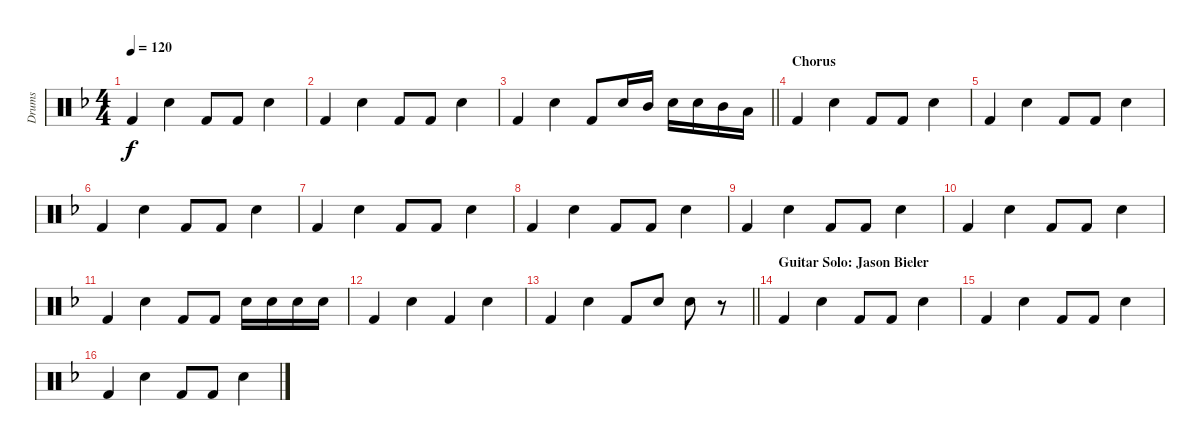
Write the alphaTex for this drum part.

\track ("Drums" "Drums") {instrument percussion}
\staff {score}
\articulation defaults
\ts (4 4)
\tempo 120
\clef neutral
\ks f "Kick (hit) 2".4{dy f} "Snare (hit) 2".4 "Kick (hit) 2".8 "Kick (hit) 2".8 "Snare (hit) 2".4
|
"Kick (hit) 2".4 "Snare (hit) 2".4 "Kick (hit) 2".8 "Kick (hit) 2".8 "Snare (hit) 2".4 |
\barLineRight lightlight "Kick (hit) 2".4 "Snare (hit) 2".4 "Kick (hit) 2".8 "Snare (hit) 2".16 "Mid Tom (hit)".16 "Snare (hit) 2".16 "Snare (hit) 2".16 "Mid Tom (hit)".16 "Low Tom (hit)".16
|
\section ("" "Chorus")
"Kick (hit) 2".4 "Snare (hit) 2".4 "Kick (hit) 2".8 "Kick (hit) 2".8 "Snare (hit) 2".4 |
"Kick (hit) 2".4 "Snare (hit) 2".4 "Kick (hit) 2".8 "Kick (hit) 2".8 "Snare (hit) 2".4 |
"Kick (hit) 2".4 "Snare (hit) 2".4 "Kick (hit) 2".8 "Kick (hit) 2".8 "Snare (hit) 2".4 |
"Kick (hit) 2".4 "Snare (hit) 2".4 "Kick (hit) 2".8 "Kick (hit) 2".8 "Snare (hit) 2".4 |
"Kick (hit) 2".4 "Snare (hit) 2".4 "Kick (hit) 2".8 "Kick (hit) 2".8 "Snare (hit) 2".4 |
"Kick (hit) 2".4 "Snare (hit) 2".4 "Kick (hit) 2".8 "Kick (hit) 2".8 "Snare (hit) 2".4 |
"Kick (hit) 2".4 "Snare (hit) 2".4 "Kick (hit) 2".8 "Kick (hit) 2".8 "Snare (hit) 2".4 |
"Kick (hit) 2".4 "Snare (hit) 2".4 "Kick (hit) 2".8 "Kick (hit) 2".8 "Snare (hit) 2".16 "Snare (hit) 2".16 "Snare (hit) 2".16 "Snare (hit) 2".16 |
"Kick (hit) 2".4 "Snare (hit) 2".4 "Kick (hit) 2".4 "Snare (hit) 2".4 |
\barLineRight lightlight "Kick (hit) 2".4 "Snare (hit) 2".4 "Kick (hit) 2".8 "Snare (hit) 2".8 "Snare (hit) 2".8
r.8 |
\section ("" "Guitar Solo: Jason Bieler")
"Kick (hit) 2".4 "Snare (hit) 2".4 "Kick (hit) 2".8 "Kick (hit) 2".8 "Snare (hit) 2".4 |
"Kick (hit) 2".4 "Snare (hit) 2".4 "Kick (hit) 2".8 "Kick (hit) 2".8 "Snare (hit) 2".4 |
"Kick (hit) 2".4 "Snare (hit) 2".4 "Kick (hit) 2".8 "Kick (hit) 2".8 "Snare (hit) 2".4
